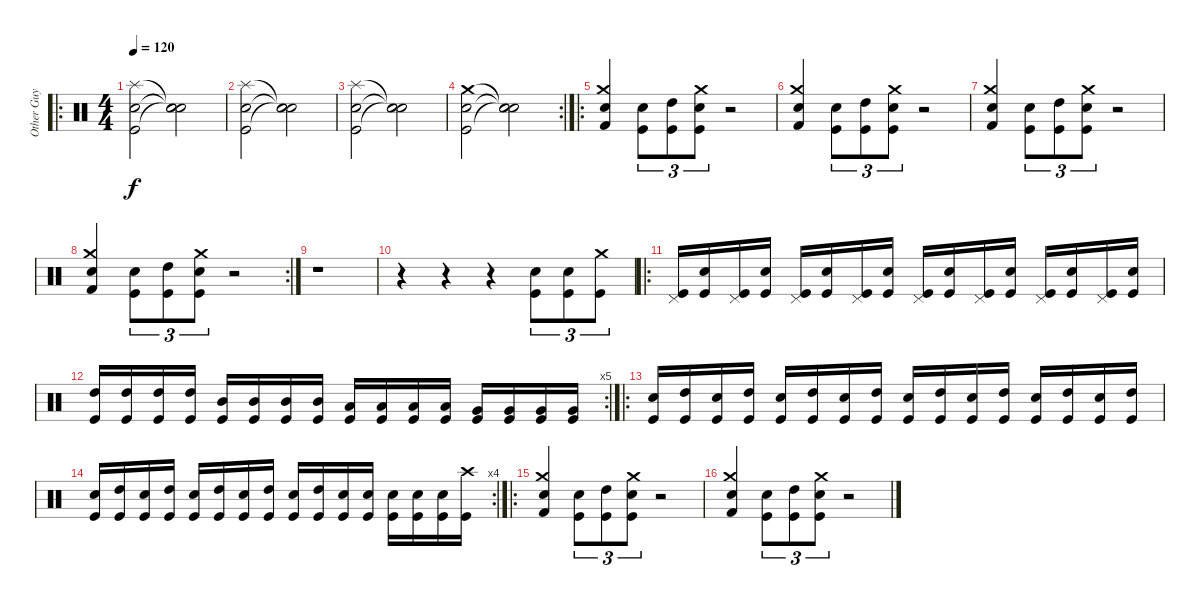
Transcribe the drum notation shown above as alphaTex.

\track ("Other Guy" "Other Guy") {instrument percussion}
\staff {score}
\articulation defaults
\ro
\ts (4 4)
\tempo 120
\clef neutral
\ks c
("Splash (hit)" "Electric Snare (hit)" "Kick (hit)").2{dy f} ("Snare (hit)"{t} "Snare (hit)"{t} "Snare (hit)"{t}).2 |
("Splash (hit)" "Electric Snare (hit)" "Kick (hit)").2 ("Snare (hit)"{t} "Snare (hit)"{t} "Snare (hit)"{t}).2 |
("Splash (hit)" "Electric Snare (hit)" "Kick (hit)").2 ("Snare (hit)"{t} "Snare (hit)"{t} "Snare (hit)"{t}).2 |
\rc 2
("Crash medium (hit)" "Electric Snare (hit)" "Kick (hit)").2 ("Snare (hit)"{t} "Snare (hit)"{t} "Snare (hit)"{t}).2 |
\ro
("Crash medium (hit)" "Electric Snare (hit)" "Kick (hit) 2").4 ("Electric Snare (hit)" "Kick (hit)").8{tu (3 2)} ("High Tom (hit)" "Kick (hit)").8{tu (3 2)} ("Crash medium (hit)" "Electric Snare (hit)" "Kick (hit)").8{tu (3 2)} r.2 |
("Crash medium (hit)" "Electric Snare (hit)" "Kick (hit) 2").4 ("Electric Snare (hit)" "Kick (hit)").8{tu (3 2)} ("High Tom (hit)" "Kick (hit)").8{tu (3 2)} ("Crash medium (hit)" "Electric Snare (hit)" "Kick (hit)").8{tu (3 2)} r.2 |
("Crash medium (hit)" "Electric Snare (hit)" "Kick (hit) 2").4 ("Electric Snare (hit)" "Kick (hit)").8{tu (3 2)} ("High Tom (hit)" "Kick (hit)").8{tu (3 2)} ("Crash medium (hit)" "Electric Snare (hit)" "Kick (hit)").8{tu (3 2)} r.2 |
\rc 2
("Crash medium (hit)" "Electric Snare (hit)" "Kick (hit) 2").4 ("Electric Snare (hit)" "Kick (hit)").8{tu (3 2)} ("High Tom (hit)" "Kick (hit)").8{tu (3 2)} ("Crash medium (hit)" "Electric Snare (hit)" "Kick (hit)").8{tu (3 2)} r.2 |
r.1 |
r.4 r.4 r.4 ("Electric Snare (hit)" "Kick (hit)").8{tu (3 2)} ("Electric Snare (hit)" "Kick (hit)").8{tu (3 2)} ("Crash medium (hit)" "Kick (hit)").8{tu (3 2)} |
\ro
("Pedal Hi-Hat (hit)" "Kick (hit)").16 ("Electric Snare (hit)" "Kick (hit)").16 ("Pedal Hi-Hat (hit)" "Kick (hit)").16 ("Electric Snare (hit)" "Kick (hit)").16 ("Pedal Hi-Hat (hit)" "Kick (hit)").16 ("Electric Snare (hit)" "Kick (hit)").16 ("Pedal Hi-Hat (hit)" "Kick (hit)").16 ("Electric Snare (hit)" "Kick (hit)").16 ("Pedal Hi-Hat (hit)" "Kick (hit)").16 ("Electric Snare (hit)" "Kick (hit)").16 ("Pedal Hi-Hat (hit)" "Kick (hit)").16 ("Electric Snare (hit)" "Kick (hit)").16 ("Pedal Hi-Hat (hit)" "Kick (hit)").16 ("Electric Snare (hit)" "Kick (hit)").16 ("Pedal Hi-Hat (hit)" "Kick (hit)").16 ("Electric Snare (hit)" "Kick (hit)").16 |
\rc 5
("High Tom (hit)" "Kick (hit)").16 ("High Tom (hit)" "Kick (hit)").16 ("High Tom (hit)" "Kick (hit)").16 ("High Tom (hit)" "Kick (hit)").16 ("Mid Tom (hit)" "Kick (hit)").16 ("Mid Tom (hit)" "Kick (hit)").16 ("Mid Tom (hit)" "Kick (hit)").16 ("Mid Tom (hit)" "Kick (hit)").16 ("Low Tom (hit)" "Kick (hit)").16 ("Low Tom (hit)" "Kick (hit)").16 ("Low Tom (hit)" "Kick (hit)").16 ("Low Tom (hit)" "Kick (hit)").16 ("Very Low Tom (hit)" "Kick (hit)").16 ("Very Low Tom (hit)" "Kick (hit)").16 ("Very Low Tom (hit)" "Kick (hit)").16 ("Very Low Tom (hit)" "Kick (hit)").16 |
\ro
("Electric Snare (hit)" "Kick (hit)").16 ("High Tom (hit)" "Kick (hit)").16 ("Electric Snare (hit)" "Kick (hit)").16 ("High Tom (hit)" "Kick (hit)").16 ("Electric Snare (hit)" "Kick (hit)").16 ("High Tom (hit)" "Kick (hit)").16 ("Electric Snare (hit)" "Kick (hit)").16 ("High Tom (hit)" "Kick (hit)").16 ("Electric Snare (hit)" "Kick (hit)").16 ("High Tom (hit)" "Kick (hit)").16 ("Electric Snare (hit)" "Kick (hit)").16 ("High Tom (hit)" "Kick (hit)").16 ("Electric Snare (hit)" "Kick (hit)").16 ("High Tom (hit)" "Kick (hit)").16 ("Electric Snare (hit)" "Kick (hit)").16 ("High Tom (hit)" "Kick (hit)").16 |
\rc 4
("Electric Snare (hit)" "Kick (hit)").16 ("High Tom (hit)" "Kick (hit)").16 ("Electric Snare (hit)" "Kick (hit)").16 ("High Tom (hit)" "Kick (hit)").16 ("Electric Snare (hit)" "Kick (hit)").16 ("High Tom (hit)" "Kick (hit)").16 ("Electric Snare (hit)" "Kick (hit)").16 ("High Tom (hit)" "Kick (hit)").16 ("Electric Snare (hit)" "Kick (hit)").16 ("High Tom (hit)" "Kick (hit)").16 ("Electric Snare (hit)" "Kick (hit)").16 ("Electric Snare (hit)" "Kick (hit)").16 ("Electric Snare (hit)" "Kick (hit)").16 ("Electric Snare (hit)" "Kick (hit)").16 ("Electric Snare (hit)" "Kick (hit)").16 ("Crash high (hit)" "Kick (hit)").16 |
\ro
("Crash medium (hit)" "Electric Snare (hit)" "Kick (hit) 2").4 ("Electric Snare (hit)" "Kick (hit)").8{tu (3 2)} ("High Tom (hit)" "Kick (hit)").8{tu (3 2)} ("Crash medium (hit)" "Electric Snare (hit)" "Kick (hit)").8{tu (3 2)} r.2 |
("Crash medium (hit)" "Electric Snare (hit)" "Kick (hit) 2").4 ("Electric Snare (hit)" "Kick (hit)").8{tu (3 2)} ("High Tom (hit)" "Kick (hit)").8{tu (3 2)} ("Crash medium (hit)" "Electric Snare (hit)" "Kick (hit)").8{tu (3 2)} r.2
